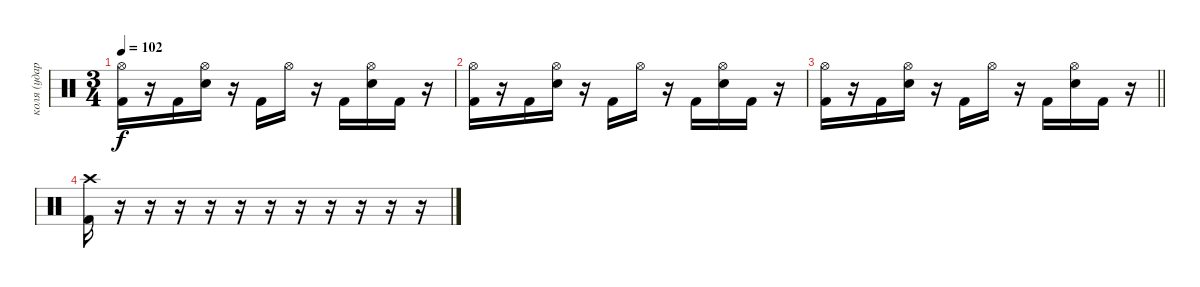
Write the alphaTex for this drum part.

\track ("коля (ударные)" "коля (удар") {instrument percussion}
\staff {score}
\articulation defaults
\ts (3 4)
\tempo 102
\clef neutral
\ks c
("Kick (hit) 2" "Hi-Hat (open)").16{dy f} r.16 "Kick (hit) 2".16 ("Snare (hit) 2" "Hi-Hat (open)").16 r.16 "Kick (hit) 2".16 "Hi-Hat (open)".16 r.16 "Kick (hit) 2".16 ("Snare (hit) 2" "Hi-Hat (open)").16 "Kick (hit) 2".16 r.16 |
("Kick (hit) 2" "Hi-Hat (open)").16 r.16 "Kick (hit) 2".16 ("Snare (hit) 2" "Hi-Hat (open)").16 r.16 "Kick (hit) 2".16 "Hi-Hat (open)".16 r.16 "Kick (hit) 2".16 ("Snare (hit) 2" "Hi-Hat (open)").16 "Kick (hit) 2".16 r.16 |
\barLineRight lightlight
("Kick (hit) 2" "Hi-Hat (open)").16 r.16 "Kick (hit) 2".16 ("Snare (hit) 2" "Hi-Hat (open)").16 r.16 "Kick (hit) 2".16 "Hi-Hat (open)".16 r.16 "Kick (hit) 2".16 ("Snare (hit) 2" "Hi-Hat (open)").16 "Kick (hit) 2".16 r.16 |
("Kick (hit) 2" "Crash high (hit)").16 r.16 r.16 r.16 r.16 r.16 r.16 r.16 r.16 r.16 r.16 r.16
